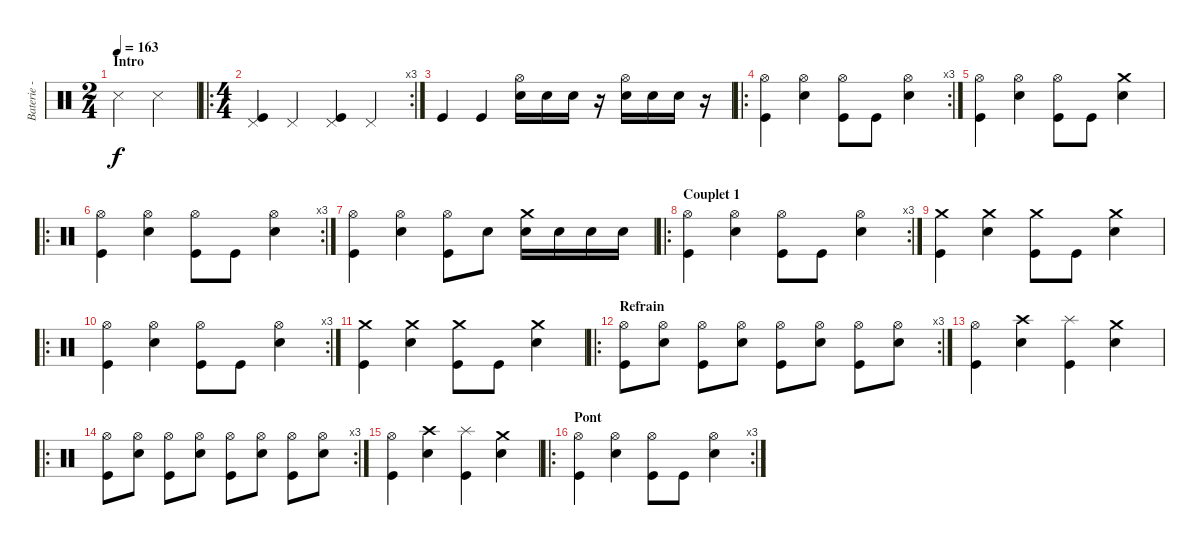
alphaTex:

\track ("Baterie - Alex" "Baterie - ") {instrument percussion}
\staff {score}
\articulation defaults
\ts (2 4)
\section ("" "Intro")
\tempo 163
\clef neutral
\ks c "Snare (side stick) 3".4{dy f} "Snare (side stick) 3".4
|
\ro
\rc 3
\ts (4 4)
("Pedal Hi-Hat (hit)" "Kick (hit)").4 "Pedal Hi-Hat (hit)".4 ("Pedal Hi-Hat (hit)" "Kick (hit)").4 "Pedal Hi-Hat (hit)".4 |
"Kick (hit)".4 "Kick (hit)".4 ("Hi-Hat (open)" "Electric Snare (hit)").16 "Electric Snare (hit)".16 "Electric Snare (hit)".16 r.16 ("Hi-Hat (open)" "Electric Snare (hit)").16 "Electric Snare (hit)".16 "Electric Snare (hit)".16 r.16 |
\ro
\rc 3
("Hi-Hat (open)" "Kick (hit)").4 ("Hi-Hat (open)" "Electric Snare (hit)").4 ("Hi-Hat (open)" "Kick (hit)").8 "Kick (hit)".8 ("Hi-Hat (open)" "Electric Snare (hit)").4 |
("Hi-Hat (open)" "Kick (hit)").4 ("Hi-Hat (open)" "Electric Snare (hit)").4 ("Hi-Hat (open)" "Kick (hit)").8 "Kick (hit)".8 ("Crash medium (hit)" "Electric Snare (hit)").4 |
\ro
\rc 3
("Hi-Hat (open)" "Kick (hit)").4 ("Hi-Hat (open)" "Electric Snare (hit)").4 ("Hi-Hat (open)" "Kick (hit)").8 "Kick (hit)".8 ("Hi-Hat (open)" "Electric Snare (hit)").4 |
("Hi-Hat (open)" "Kick (hit)").4 ("Hi-Hat (open)" "Electric Snare (hit)").4 ("Hi-Hat (open)" "Kick (hit)").8 "Electric Snare (hit)".8 ("Crash medium (hit)" "Electric Snare (hit)").16 "Electric Snare (hit)".16 "Electric Snare (hit)".16 "Electric Snare (hit)".16 |
\ro
\rc 3
\section ("" "Couplet 1")
("Hi-Hat (open)" "Kick (hit)").4 ("Hi-Hat (open)" "Electric Snare (hit)").4 ("Hi-Hat (open)" "Kick (hit)").8 "Kick (hit)".8 ("Hi-Hat (open)" "Electric Snare (hit)").4 |
("Crash medium (hit)" "Kick (hit)").4 ("Crash medium (hit)" "Electric Snare (hit)").4 ("Crash medium (hit)" "Kick (hit)").8 "Kick (hit)".8 ("Crash medium (hit)" "Electric Snare (hit)").4 |
\ro
\rc 3
("Hi-Hat (open)" "Kick (hit)").4 ("Hi-Hat (open)" "Electric Snare (hit)").4 ("Hi-Hat (open)" "Kick (hit)").8 "Kick (hit)".8 ("Hi-Hat (open)" "Electric Snare (hit)").4 |
("Crash medium (hit)" "Kick (hit)").4 ("Crash medium (hit)" "Electric Snare (hit)").4 ("Crash medium (hit)" "Kick (hit)").8 "Kick (hit)".8 ("Crash medium (hit)" "Electric Snare (hit)").4 |
\ro
\rc 3
\section ("" "Refrain")
("Hi-Hat (open)" "Kick (hit)").8 ("Hi-Hat (open)" "Electric Snare (hit)").8 ("Hi-Hat (open)" "Kick (hit)").8 ("Hi-Hat (open)" "Electric Snare (hit)").8 ("Hi-Hat (open)" "Kick (hit)").8 ("Hi-Hat (open)" "Electric Snare (hit)").8 ("Hi-Hat (open)" "Kick (hit)").8 ("Hi-Hat (open)" "Electric Snare (hit)").8 |
("Hi-Hat (open)" "Kick (hit)").4 ("Crash high (hit)" "Electric Snare (hit)").4 ("Splash (hit)" "Kick (hit)").4 ("Crash medium (hit)" "Electric Snare (hit)").4 |
\ro
\rc 3
("Hi-Hat (open)" "Kick (hit)").8 ("Hi-Hat (open)" "Electric Snare (hit)").8 ("Hi-Hat (open)" "Kick (hit)").8 ("Hi-Hat (open)" "Electric Snare (hit)").8 ("Hi-Hat (open)" "Kick (hit)").8 ("Hi-Hat (open)" "Electric Snare (hit)").8 ("Hi-Hat (open)" "Kick (hit)").8 ("Hi-Hat (open)" "Electric Snare (hit)").8 |
("Hi-Hat (open)" "Kick (hit)").4 ("Crash high (hit)" "Electric Snare (hit)").4 ("Splash (hit)" "Kick (hit)").4 ("Crash medium (hit)" "Electric Snare (hit)").4 |
\ro
\rc 3
\section ("" "Pont")
("Hi-Hat (open)" "Kick (hit)").4 ("Hi-Hat (open)" "Electric Snare (hit)").4 ("Hi-Hat (open)" "Kick (hit)").8 "Kick (hit)".8 ("Hi-Hat (open)" "Electric Snare (hit)").4
